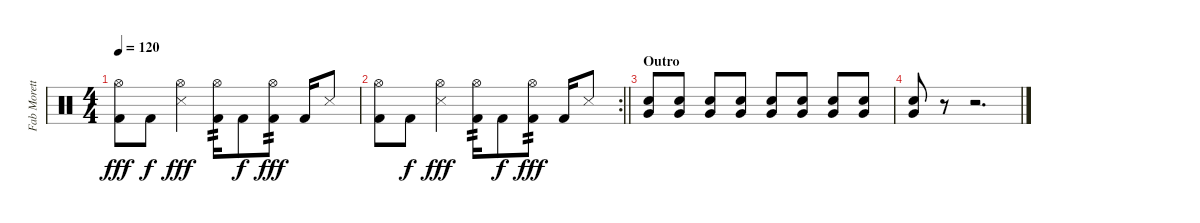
\track ("Fab Moretti - Drums" "Fab Morett") {instrument percussion}
\staff {score}
\articulation defaults
\ts (4 4)
\tempo 120
\clef neutral
\ks c
("Kick (hit) 2" "Hi-Hat (open)").8{dy fff} "Kick (hit) 2".8{dy f} ("Snare (side stick) 3" "Hi-Hat (open)").4{dy fff} ("Kick (hit) 2" "Hi-Hat (open)").16{tp 2} "Kick (hit) 2".8{dy f} ("Kick (hit) 2" "Hi-Hat (open)").8{tp 2 dy fff} "Kick (hit) 2".16 "Snare (side stick) 3".8 |
\rc 2
\barLineRight lightlight
("Kick (hit) 2" "Hi-Hat (open)").8 "Kick (hit) 2".8{dy f} ("Snare (side stick) 3" "Hi-Hat (open)").4{dy fff} ("Kick (hit) 2" "Hi-Hat (open)").16{tp 2} "Kick (hit) 2".8{dy f} ("Kick (hit) 2" "Hi-Hat (open)").8{tp 2 dy fff} "Kick (hit) 2".16 "Snare (side stick) 3".8 |
\section ("" "Outro")
("Very Low Tom (hit)" "Electric Snare (hit)").8 ("Very Low Tom (hit)" "Electric Snare (hit)").8 ("Very Low Tom (hit)" "Electric Snare (hit)").8 ("Very Low Tom (hit)" "Electric Snare (hit)").8 ("Very Low Tom (hit)" "Electric Snare (hit)").8 ("Very Low Tom (hit)" "Electric Snare (hit)").8 ("Very Low Tom (hit)" "Electric Snare (hit)").8 ("Very Low Tom (hit)" "Electric Snare (hit)").8 |
("Very Low Tom (hit)" "Electric Snare (hit)").8 r.8 r.2{d}
